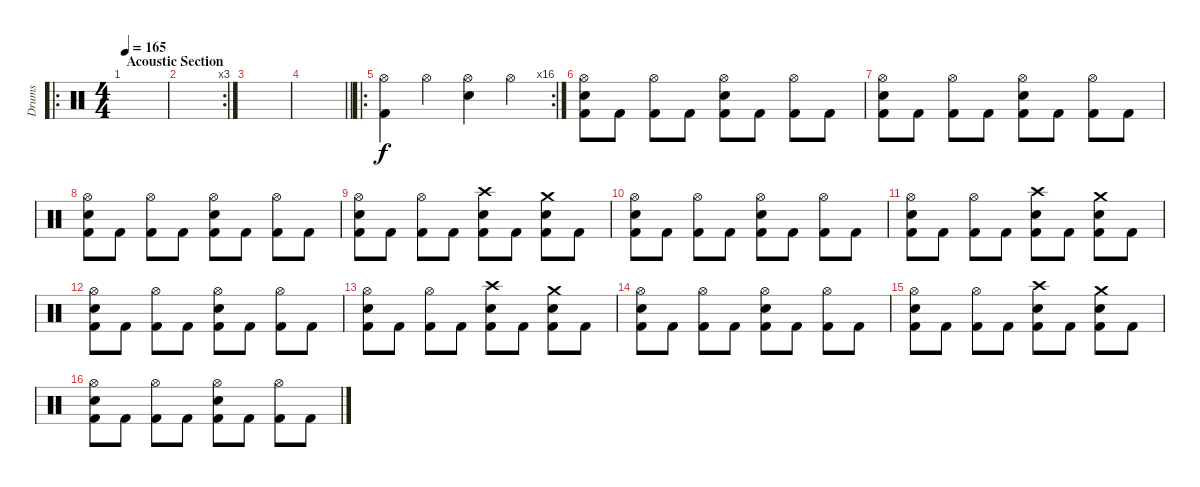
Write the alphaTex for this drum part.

\track ("Drums" "Drums") {instrument percussion}
\staff {score}
\articulation defaults
\ro
\ts (4 4)
\section ("" "Acoustic Section")
\tempo 165
\clef neutral
\ks c
|
\rc 3
|
|
\barLineRight lightlight
|
\ro
\rc 16
("Hi-Hat (open)" "Kick (hit) 2").4 "Hi-Hat (open)".4 ("Hi-Hat (open)" "Electric Snare (hit)").4 "Hi-Hat (open)".4 |
("Electric Snare (hit)" "Hi-Hat (open)" "Kick (hit) 2").8 "Kick (hit) 2".8 ("Hi-Hat (open)" "Kick (hit) 2").8 "Kick (hit) 2".8 ("Electric Snare (hit)" "Hi-Hat (open)" "Kick (hit) 2").8 "Kick (hit) 2".8 ("Hi-Hat (open)" "Kick (hit) 2").8 "Kick (hit) 2".8 |
("Electric Snare (hit)" "Hi-Hat (open)" "Kick (hit) 2").8 "Kick (hit) 2".8 ("Hi-Hat (open)" "Kick (hit) 2").8 "Kick (hit) 2".8 ("Electric Snare (hit)" "Hi-Hat (open)" "Kick (hit) 2").8 "Kick (hit) 2".8 ("Hi-Hat (open)" "Kick (hit) 2").8 "Kick (hit) 2".8 |
("Electric Snare (hit)" "Hi-Hat (open)" "Kick (hit) 2").8 "Kick (hit) 2".8 ("Hi-Hat (open)" "Kick (hit) 2").8 "Kick (hit) 2".8 ("Electric Snare (hit)" "Hi-Hat (open)" "Kick (hit) 2").8 "Kick (hit) 2".8 ("Hi-Hat (open)" "Kick (hit) 2").8 "Kick (hit) 2".8 |
("Electric Snare (hit)" "Hi-Hat (open)" "Kick (hit) 2").8 "Kick (hit) 2".8 ("Hi-Hat (open)" "Kick (hit) 2").8 "Kick (hit) 2".8 ("Electric Snare (hit)" "Crash high (hit)" "Kick (hit) 2").8 "Kick (hit) 2".8 ("Electric Snare (hit)" "Crash medium (hit)" "Kick (hit) 2").8 "Kick (hit) 2".8 |
("Electric Snare (hit)" "Hi-Hat (open)" "Kick (hit) 2").8 "Kick (hit) 2".8 ("Hi-Hat (open)" "Kick (hit) 2").8 "Kick (hit) 2".8 ("Electric Snare (hit)" "Hi-Hat (open)" "Kick (hit) 2").8 "Kick (hit) 2".8 ("Hi-Hat (open)" "Kick (hit) 2").8 "Kick (hit) 2".8 |
("Electric Snare (hit)" "Hi-Hat (open)" "Kick (hit) 2").8 "Kick (hit) 2".8 ("Hi-Hat (open)" "Kick (hit) 2").8 "Kick (hit) 2".8 ("Electric Snare (hit)" "Crash high (hit)" "Kick (hit) 2").8 "Kick (hit) 2".8 ("Electric Snare (hit)" "Crash medium (hit)" "Kick (hit) 2").8 "Kick (hit) 2".8 |
("Electric Snare (hit)" "Hi-Hat (open)" "Kick (hit) 2").8 "Kick (hit) 2".8 ("Hi-Hat (open)" "Kick (hit) 2").8 "Kick (hit) 2".8 ("Electric Snare (hit)" "Hi-Hat (open)" "Kick (hit) 2").8 "Kick (hit) 2".8 ("Hi-Hat (open)" "Kick (hit) 2").8 "Kick (hit) 2".8 |
("Electric Snare (hit)" "Hi-Hat (open)" "Kick (hit) 2").8 "Kick (hit) 2".8 ("Hi-Hat (open)" "Kick (hit) 2").8 "Kick (hit) 2".8 ("Electric Snare (hit)" "Crash high (hit)" "Kick (hit) 2").8 "Kick (hit) 2".8 ("Electric Snare (hit)" "Crash medium (hit)" "Kick (hit) 2").8 "Kick (hit) 2".8 |
("Electric Snare (hit)" "Hi-Hat (open)" "Kick (hit) 2").8 "Kick (hit) 2".8 ("Hi-Hat (open)" "Kick (hit) 2").8 "Kick (hit) 2".8 ("Electric Snare (hit)" "Hi-Hat (open)" "Kick (hit) 2").8 "Kick (hit) 2".8 ("Hi-Hat (open)" "Kick (hit) 2").8 "Kick (hit) 2".8 |
("Electric Snare (hit)" "Hi-Hat (open)" "Kick (hit) 2").8 "Kick (hit) 2".8 ("Hi-Hat (open)" "Kick (hit) 2").8 "Kick (hit) 2".8 ("Electric Snare (hit)" "Crash high (hit)" "Kick (hit) 2").8 "Kick (hit) 2".8 ("Electric Snare (hit)" "Crash medium (hit)" "Kick (hit) 2").8 "Kick (hit) 2".8 |
("Electric Snare (hit)" "Hi-Hat (open)" "Kick (hit) 2").8 "Kick (hit) 2".8 ("Hi-Hat (open)" "Kick (hit) 2").8 "Kick (hit) 2".8 ("Electric Snare (hit)" "Hi-Hat (open)" "Kick (hit) 2").8 "Kick (hit) 2".8 ("Hi-Hat (open)" "Kick (hit) 2").8 "Kick (hit) 2".8
